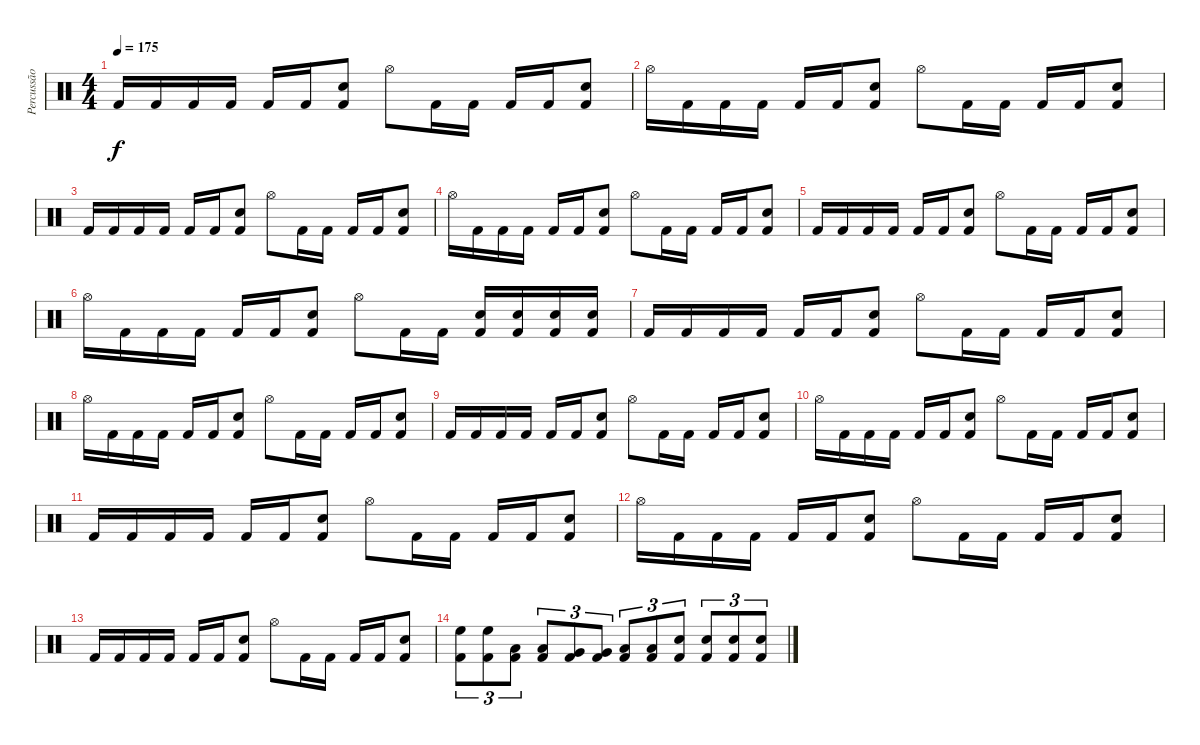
\track ("Percussão" "Percussão") {instrument percussion}
\staff {score}
\articulation defaults
\ts (4 4)
\tempo 175
\clef neutral
\ks c "Kick (hit) 2".16{dy f} "Kick (hit) 2".16 "Kick (hit) 2".16 "Kick (hit) 2".16 "Kick (hit) 2".16 "Kick (hit) 2".16
("Electric Snare (hit)" "Kick (hit) 2").8 "Hi-Hat (open)".8 "Kick (hit) 2".16 "Kick (hit) 2".16 "Kick (hit) 2".16 "Kick (hit) 2".16 ("Electric Snare (hit)" "Kick (hit) 2").8 |
"Hi-Hat (open)".16 "Kick (hit) 2".16 "Kick (hit) 2".16 "Kick (hit) 2".16 "Kick (hit) 2".16 "Kick (hit) 2".16 ("Electric Snare (hit)" "Kick (hit) 2").8 "Hi-Hat (open)".8 "Kick (hit) 2".16 "Kick (hit) 2".16 "Kick (hit) 2".16 "Kick (hit) 2".16 ("Electric Snare (hit)" "Kick (hit) 2").8 |
"Kick (hit) 2".16 "Kick (hit) 2".16 "Kick (hit) 2".16 "Kick (hit) 2".16 "Kick (hit) 2".16 "Kick (hit) 2".16 ("Electric Snare (hit)" "Kick (hit) 2").8 "Hi-Hat (open)".8 "Kick (hit) 2".16 "Kick (hit) 2".16 "Kick (hit) 2".16 "Kick (hit) 2".16 ("Electric Snare (hit)" "Kick (hit) 2").8 |
"Hi-Hat (open)".16 "Kick (hit) 2".16 "Kick (hit) 2".16 "Kick (hit) 2".16 "Kick (hit) 2".16 "Kick (hit) 2".16 ("Electric Snare (hit)" "Kick (hit) 2").8 "Hi-Hat (open)".8 "Kick (hit) 2".16 "Kick (hit) 2".16 "Kick (hit) 2".16 "Kick (hit) 2".16 ("Electric Snare (hit)" "Kick (hit) 2").8 |
"Kick (hit) 2".16 "Kick (hit) 2".16 "Kick (hit) 2".16 "Kick (hit) 2".16 "Kick (hit) 2".16 "Kick (hit) 2".16 ("Electric Snare (hit)" "Kick (hit) 2").8 "Hi-Hat (open)".8 "Kick (hit) 2".16 "Kick (hit) 2".16 "Kick (hit) 2".16 "Kick (hit) 2".16 ("Electric Snare (hit)" "Kick (hit) 2").8 |
"Hi-Hat (open)".16 "Kick (hit) 2".16 "Kick (hit) 2".16 "Kick (hit) 2".16 "Kick (hit) 2".16 "Kick (hit) 2".16 ("Electric Snare (hit)" "Kick (hit) 2").8 "Hi-Hat (open)".8 "Kick (hit) 2".16 "Kick (hit) 2".16 ("Electric Snare (hit)" "Kick (hit) 2").16 ("Electric Snare (hit)" "Kick (hit) 2").16 ("Electric Snare (hit)" "Kick (hit) 2").16 ("Electric Snare (hit)" "Kick (hit) 2").16 |
"Kick (hit) 2".16 "Kick (hit) 2".16 "Kick (hit) 2".16 "Kick (hit) 2".16 "Kick (hit) 2".16 "Kick (hit) 2".16 ("Electric Snare (hit)" "Kick (hit) 2").8 "Hi-Hat (open)".8 "Kick (hit) 2".16 "Kick (hit) 2".16 "Kick (hit) 2".16 "Kick (hit) 2".16 ("Electric Snare (hit)" "Kick (hit) 2").8 |
"Hi-Hat (open)".16 "Kick (hit) 2".16 "Kick (hit) 2".16 "Kick (hit) 2".16 "Kick (hit) 2".16 "Kick (hit) 2".16 ("Electric Snare (hit)" "Kick (hit) 2").8 "Hi-Hat (open)".8 "Kick (hit) 2".16 "Kick (hit) 2".16 "Kick (hit) 2".16 "Kick (hit) 2".16 ("Electric Snare (hit)" "Kick (hit) 2").8 |
"Kick (hit) 2".16 "Kick (hit) 2".16 "Kick (hit) 2".16 "Kick (hit) 2".16 "Kick (hit) 2".16 "Kick (hit) 2".16 ("Electric Snare (hit)" "Kick (hit) 2").8 "Hi-Hat (open)".8 "Kick (hit) 2".16 "Kick (hit) 2".16 "Kick (hit) 2".16 "Kick (hit) 2".16 ("Electric Snare (hit)" "Kick (hit) 2").8 |
"Hi-Hat (open)".16 "Kick (hit) 2".16 "Kick (hit) 2".16 "Kick (hit) 2".16 "Kick (hit) 2".16 "Kick (hit) 2".16 ("Electric Snare (hit)" "Kick (hit) 2").8 "Hi-Hat (open)".8 "Kick (hit) 2".16 "Kick (hit) 2".16 "Kick (hit) 2".16 "Kick (hit) 2".16 ("Electric Snare (hit)" "Kick (hit) 2").8 |
"Kick (hit) 2".16 "Kick (hit) 2".16 "Kick (hit) 2".16 "Kick (hit) 2".16 "Kick (hit) 2".16 "Kick (hit) 2".16 ("Electric Snare (hit)" "Kick (hit) 2").8 "Hi-Hat (open)".8 "Kick (hit) 2".16 "Kick (hit) 2".16 "Kick (hit) 2".16 "Kick (hit) 2".16 ("Electric Snare (hit)" "Kick (hit) 2").8 |
"Hi-Hat (open)".16 "Kick (hit) 2".16 "Kick (hit) 2".16 "Kick (hit) 2".16 "Kick (hit) 2".16 "Kick (hit) 2".16 ("Electric Snare (hit)" "Kick (hit) 2").8 "Hi-Hat (open)".8 "Kick (hit) 2".16 "Kick (hit) 2".16 "Kick (hit) 2".16 "Kick (hit) 2".16 ("Electric Snare (hit)" "Kick (hit) 2").8 |
"Kick (hit) 2".16 "Kick (hit) 2".16 "Kick (hit) 2".16 "Kick (hit) 2".16 "Kick (hit) 2".16 "Kick (hit) 2".16 ("Electric Snare (hit)" "Kick (hit) 2").8 "Hi-Hat (open)".8 "Kick (hit) 2".16 "Kick (hit) 2".16 "Kick (hit) 2".16 "Kick (hit) 2".16 ("Electric Snare (hit)" "Kick (hit) 2").8 |
("High Floor Tom (hit)" "Kick (hit) 2").8{tu (3 2)} ("High Floor Tom (hit)" "Kick (hit) 2").8{tu (3 2)} ("Low Tom (hit)" "Kick (hit) 2").8{tu (3 2)} ("Low Tom (hit)" "Kick (hit) 2").8{tu (3 2)} ("Very Low Tom (hit)" "Kick (hit) 2").8{tu (3 2)} ("Very Low Tom (hit)" "Kick (hit) 2").8{tu (3 2)} ("Low Tom (hit)" "Kick (hit) 2").8{tu (3 2)} ("Low Tom (hit)" "Kick (hit) 2").8{tu (3 2)} ("Electric Snare (hit)" "Kick (hit) 2").8{tu (3 2)} ("Electric Snare (hit)" "Kick (hit) 2").8{tu (3 2)} ("Electric Snare (hit)" "Kick (hit) 2").8{tu (3 2)} ("Electric Snare (hit)" "Kick (hit) 2").8{tu (3 2)}
